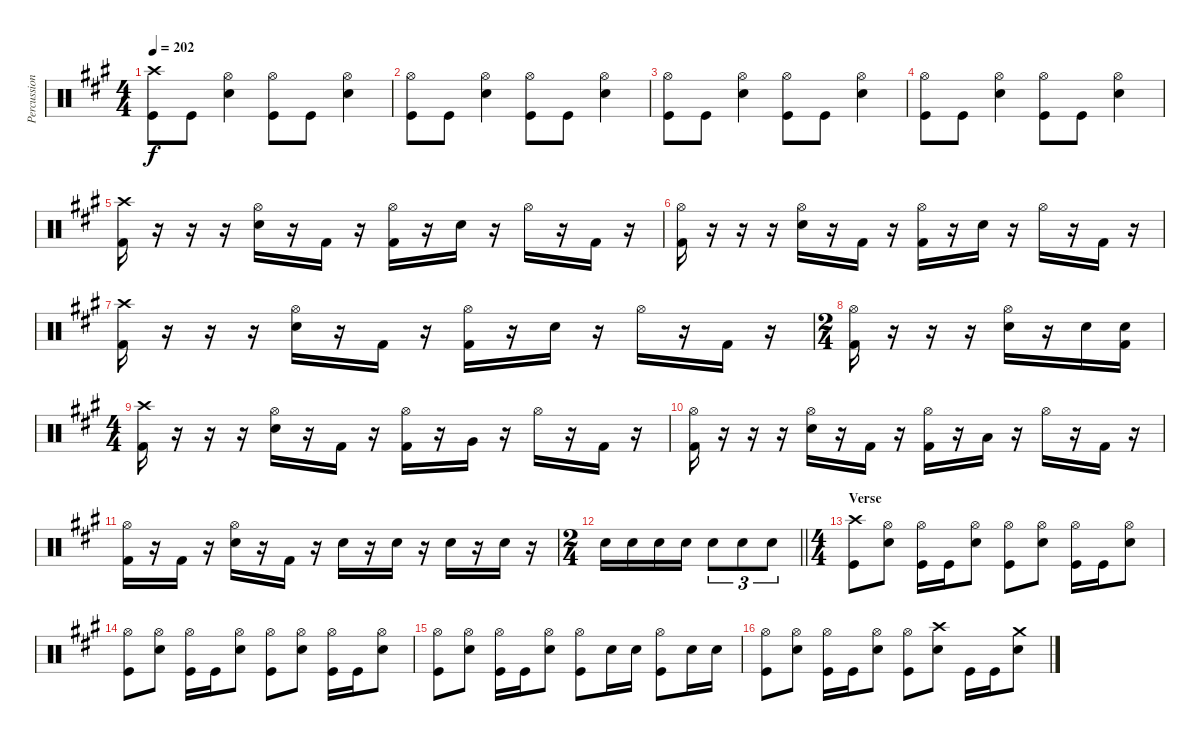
\track ("Percussion" "Percussion") {instrument percussion}
\staff {score}
\articulation defaults
\ts (4 4)
\tempo 202
\clef neutral
\ks a
("Crash high (hit)" "Kick (hit)").8{dy f} "Kick (hit)".8 ("Hi-Hat (open)" "Electric Snare (hit)").4 ("Hi-Hat (open)" "Kick (hit)").8 "Kick (hit)".8 ("Hi-Hat (open)" "Electric Snare (hit)").4 |
("Hi-Hat (open)" "Kick (hit)").8 "Kick (hit)".8 ("Hi-Hat (open)" "Electric Snare (hit)").4 ("Hi-Hat (open)" "Kick (hit)").8 "Kick (hit)".8 ("Hi-Hat (open)" "Electric Snare (hit)").4 |
("Hi-Hat (open)" "Kick (hit)").8 "Kick (hit)".8 ("Hi-Hat (open)" "Electric Snare (hit)").4 ("Hi-Hat (open)" "Kick (hit)").8 "Kick (hit)".8 ("Hi-Hat (open)" "Electric Snare (hit)").4 |
("Hi-Hat (open)" "Kick (hit)").8 "Kick (hit)".8 ("Hi-Hat (open)" "Electric Snare (hit)").4 ("Hi-Hat (open)" "Kick (hit)").8 "Kick (hit)".8 ("Hi-Hat (open)" "Electric Snare (hit)").4 |
("Crash high (hit)" "Kick (hit) 2").16 r.16 r.16 r.16 ("Hi-Hat (open)" "Snare (hit) 2").16 r.16 "Kick (hit) 2".16 r.16 ("Hi-Hat (open)" "Kick (hit) 2").16 r.16 "Snare (hit) 2".16 r.16 "Hi-Hat (open)".16 r.16 "Kick (hit) 2".16 r.16 |
("Hi-Hat (open)" "Kick (hit) 2").16 r.16 r.16 r.16 ("Hi-Hat (open)" "Snare (hit) 2").16 r.16 "Kick (hit) 2".16 r.16 ("Hi-Hat (open)" "Kick (hit) 2").16 r.16 "Snare (hit) 2".16 r.16 "Hi-Hat (open)".16 r.16 "Kick (hit) 2".16 r.16 |
("Crash high (hit)" "Kick (hit) 2").16 r.16 r.16 r.16 ("Hi-Hat (open)" "Snare (hit) 2").16 r.16 "Kick (hit) 2".16 r.16 ("Hi-Hat (open)" "Kick (hit) 2").16 r.16 "Snare (hit) 2".16 r.16 "Hi-Hat (open)".16 r.16 "Kick (hit) 2".16 r.16 |
\ts (2 4)
("Hi-Hat (open)" "Kick (hit) 2").16 r.16 r.16 r.16 ("Hi-Hat (open)" "Snare (hit) 2").16 r.16 "Snare (hit) 2".16 ("Snare (hit) 2" "Kick (hit) 2").16 |
\ts (4 4)
("Crash high (hit)" "Kick (hit) 2").16 r.16 r.16 r.16 ("Hi-Hat (open)" "Snare (hit) 2").16 r.16 "Kick (hit) 2".16 r.16 ("Hi-Hat (open)" "Kick (hit) 2").16 r.16 "Very Low Tom (hit)".16 r.16 "Hi-Hat (open)".16 r.16 "Kick (hit) 2".16 r.16 |
("Hi-Hat (open)" "Kick (hit) 2").16 r.16 r.16 r.16 ("Hi-Hat (open)" "Snare (hit) 2").16 r.16 "Kick (hit) 2".16 r.16 ("Hi-Hat (open)" "Kick (hit) 2").16 r.16 "Low Tom (hit)".16 r.16 "Hi-Hat (open)".16 r.16 "Kick (hit) 2".16 r.16 |
("Hi-Hat (open)" "Kick (hit) 2").16 r.16 "Kick (hit) 2".16 r.16 ("Hi-Hat (open)" "Snare (hit) 2").16 r.16 "Kick (hit) 2".16 r.16 "Snare (hit) 2".16 r.16 "Snare (hit) 2".16 r.16 "Snare (hit) 2".16 r.16 "Snare (hit) 2".16 r.16 |
\ts (2 4)
\barLineRight lightlight "Snare (hit) 2".16 "Snare (hit) 2".16 "Snare (hit) 2".16 "Snare (hit) 2".16 "Snare (hit) 2".8{tu (3 2)} "Snare (hit) 2".8{tu (3 2)} "Snare (hit) 2".8{tu (3 2)}
|
\ts (4 4)
\section ("" "Verse")
("Crash high (hit)" "Kick (hit)").8 ("Hi-Hat (open)" "Electric Snare (hit)").8 ("Hi-Hat (open)" "Kick (hit)").16 "Kick (hit)".16 ("Hi-Hat (open)" "Electric Snare (hit)").8 ("Hi-Hat (open)" "Kick (hit)").8 ("Hi-Hat (open)" "Electric Snare (hit)").8 ("Hi-Hat (open)" "Kick (hit)").16 "Kick (hit)".16 ("Hi-Hat (open)" "Electric Snare (hit)").8 |
("Hi-Hat (open)" "Kick (hit)").8 ("Hi-Hat (open)" "Electric Snare (hit)").8 ("Hi-Hat (open)" "Kick (hit)").16 "Kick (hit)".16 ("Hi-Hat (open)" "Electric Snare (hit)").8 ("Hi-Hat (open)" "Kick (hit)").8 ("Hi-Hat (open)" "Electric Snare (hit)").8 ("Hi-Hat (open)" "Kick (hit)").16 "Kick (hit)".16 ("Hi-Hat (open)" "Electric Snare (hit)").8 |
("Hi-Hat (open)" "Kick (hit)").8 ("Hi-Hat (open)" "Electric Snare (hit)").8 ("Hi-Hat (open)" "Kick (hit)").16 "Kick (hit)".16 ("Hi-Hat (open)" "Electric Snare (hit)").8 ("Hi-Hat (open)" "Kick (hit)").8 "Electric Snare (hit)".16 "Electric Snare (hit)".16 ("Hi-Hat (open)" "Kick (hit)").8 "Electric Snare (hit)".16 "Electric Snare (hit)".16 |
("Hi-Hat (open)" "Kick (hit)").8 ("Hi-Hat (open)" "Electric Snare (hit)").8 ("Hi-Hat (open)" "Kick (hit)").16 "Kick (hit)".16 ("Hi-Hat (open)" "Electric Snare (hit)").8 ("Hi-Hat (open)" "Kick (hit)").8 ("Crash high (hit)" "Electric Snare (hit)").8 "Kick (hit)".16 "Kick (hit)".16 ("Crash medium (hit)" "Electric Snare (hit)").8
